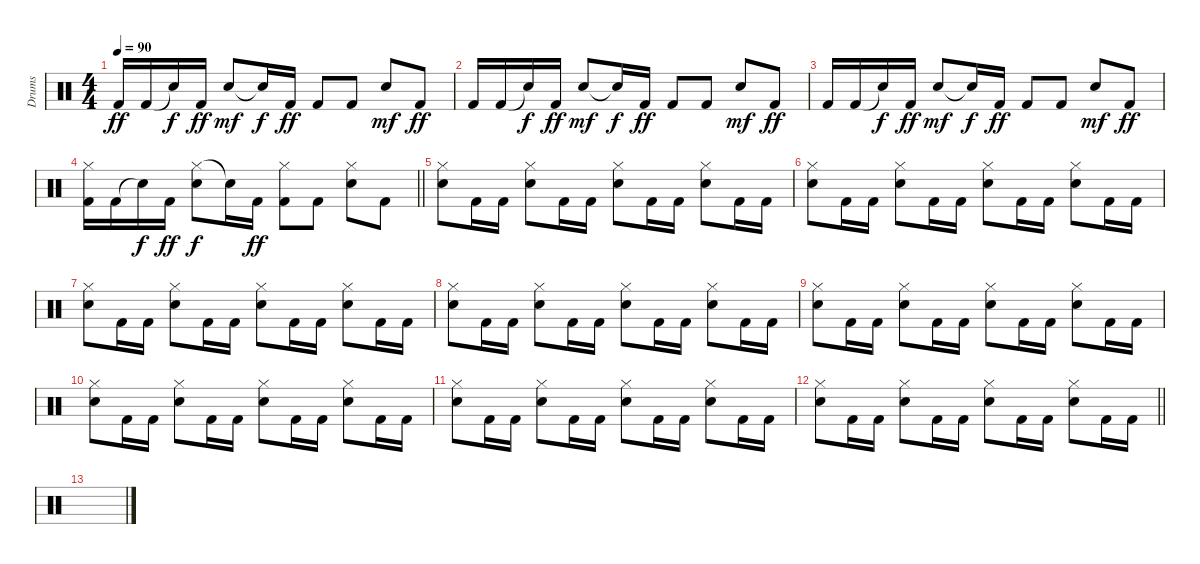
\track ("Drums" "Drums") {instrument percussion}
\staff {score}
\articulation defaults
\ts (4 4)
\tempo 90
\clef neutral
\ks c "Kick (hit) 2".16{dy ff} "Kick (hit) 2".16 "Snare (hit)"{t}.16{dy f} "Kick (hit) 2".16{dy ff} "Snare (hit) 2".8{dy mf} "Snare (hit)"{t}.16{dy f} "Kick (hit) 2".16{dy ff} "Kick (hit) 2".8 "Kick (hit) 2".8 "Snare (hit) 2".8{dy mf} "Kick (hit) 2".8{dy ff}
|
"Kick (hit) 2".16 "Kick (hit) 2".16 "Snare (hit)"{t}.16{dy f} "Kick (hit) 2".16{dy ff} "Snare (hit) 2".8{dy mf} "Snare (hit)"{t}.16{dy f} "Kick (hit) 2".16{dy ff} "Kick (hit) 2".8 "Kick (hit) 2".8 "Snare (hit) 2".8{dy mf} "Kick (hit) 2".8{dy ff} |
"Kick (hit) 2".16 "Kick (hit) 2".16 "Snare (hit)"{t}.16{dy f} "Kick (hit) 2".16{dy ff} "Snare (hit) 2".8{dy mf} "Snare (hit)"{t}.16{dy f} "Kick (hit) 2".16{dy ff} "Kick (hit) 2".8 "Kick (hit) 2".8 "Snare (hit) 2".8{dy mf} "Kick (hit) 2".8{dy ff} |
\barLineRight lightlight
("Hi-Hat (closed)" "Kick (hit) 2").16 "Kick (hit) 2".16 "Snare (hit)"{t}.16{dy f} "Kick (hit) 2".16{dy ff} ("Hi-Hat (closed)" "Snare (hit) 2").8{dy f} "Snare (hit)"{t}.16 "Kick (hit) 2".16{dy ff} ("Hi-Hat (closed)" "Kick (hit) 2").8 "Kick (hit) 2".8 ("Hi-Hat (closed)" "Snare (hit) 2").8 "Kick (hit) 2".8 |
\section ("" "")
("Hi-Hat (closed)" "Snare (hit) 2").8 "Kick (hit) 2".16 "Kick (hit) 2".16 ("Hi-Hat (closed)" "Snare (hit) 2").8 "Kick (hit) 2".16 "Kick (hit) 2".16 ("Hi-Hat (closed)" "Snare (hit) 2").8 "Kick (hit) 2".16 "Kick (hit) 2".16 ("Hi-Hat (closed)" "Snare (hit) 2").8 "Kick (hit) 2".16 "Kick (hit) 2".16 |
("Hi-Hat (closed)" "Snare (hit) 2").8 "Kick (hit) 2".16 "Kick (hit) 2".16 ("Hi-Hat (closed)" "Snare (hit) 2").8 "Kick (hit) 2".16 "Kick (hit) 2".16 ("Hi-Hat (closed)" "Snare (hit) 2").8 "Kick (hit) 2".16 "Kick (hit) 2".16 ("Hi-Hat (closed)" "Snare (hit) 2").8 "Kick (hit) 2".16 "Kick (hit) 2".16 |
("Hi-Hat (closed)" "Snare (hit) 2").8 "Kick (hit) 2".16 "Kick (hit) 2".16 ("Hi-Hat (closed)" "Snare (hit) 2").8 "Kick (hit) 2".16 "Kick (hit) 2".16 ("Hi-Hat (closed)" "Snare (hit) 2").8 "Kick (hit) 2".16 "Kick (hit) 2".16 ("Hi-Hat (closed)" "Snare (hit) 2").8 "Kick (hit) 2".16 "Kick (hit) 2".16 |
("Hi-Hat (closed)" "Snare (hit) 2").8 "Kick (hit) 2".16 "Kick (hit) 2".16 ("Hi-Hat (closed)" "Snare (hit) 2").8 "Kick (hit) 2".16 "Kick (hit) 2".16 ("Hi-Hat (closed)" "Snare (hit) 2").8 "Kick (hit) 2".16 "Kick (hit) 2".16 ("Hi-Hat (closed)" "Snare (hit) 2").8 "Kick (hit) 2".16 "Kick (hit) 2".16 |
("Hi-Hat (closed)" "Snare (hit) 2").8 "Kick (hit) 2".16 "Kick (hit) 2".16 ("Hi-Hat (closed)" "Snare (hit) 2").8 "Kick (hit) 2".16 "Kick (hit) 2".16 ("Hi-Hat (closed)" "Snare (hit) 2").8 "Kick (hit) 2".16 "Kick (hit) 2".16 ("Hi-Hat (closed)" "Snare (hit) 2").8 "Kick (hit) 2".16 "Kick (hit) 2".16 |
("Hi-Hat (closed)" "Snare (hit) 2").8 "Kick (hit) 2".16 "Kick (hit) 2".16 ("Hi-Hat (closed)" "Snare (hit) 2").8 "Kick (hit) 2".16 "Kick (hit) 2".16 ("Hi-Hat (closed)" "Snare (hit) 2").8 "Kick (hit) 2".16 "Kick (hit) 2".16 ("Hi-Hat (closed)" "Snare (hit) 2").8 "Kick (hit) 2".16 "Kick (hit) 2".16 |
("Hi-Hat (closed)" "Snare (hit) 2").8 "Kick (hit) 2".16 "Kick (hit) 2".16 ("Hi-Hat (closed)" "Snare (hit) 2").8 "Kick (hit) 2".16 "Kick (hit) 2".16 ("Hi-Hat (closed)" "Snare (hit) 2").8 "Kick (hit) 2".16 "Kick (hit) 2".16 ("Hi-Hat (closed)" "Snare (hit) 2").8 "Kick (hit) 2".16 "Kick (hit) 2".16 |
\barLineRight lightlight
("Hi-Hat (closed)" "Snare (hit) 2").8 "Kick (hit) 2".16 "Kick (hit) 2".16 ("Hi-Hat (closed)" "Snare (hit) 2").8 "Kick (hit) 2".16 "Kick (hit) 2".16 ("Hi-Hat (closed)" "Snare (hit) 2").8 "Kick (hit) 2".16 "Kick (hit) 2".16 ("Hi-Hat (closed)" "Snare (hit) 2").8 "Kick (hit) 2".16 "Kick (hit) 2".16 |
\section ("" "")
